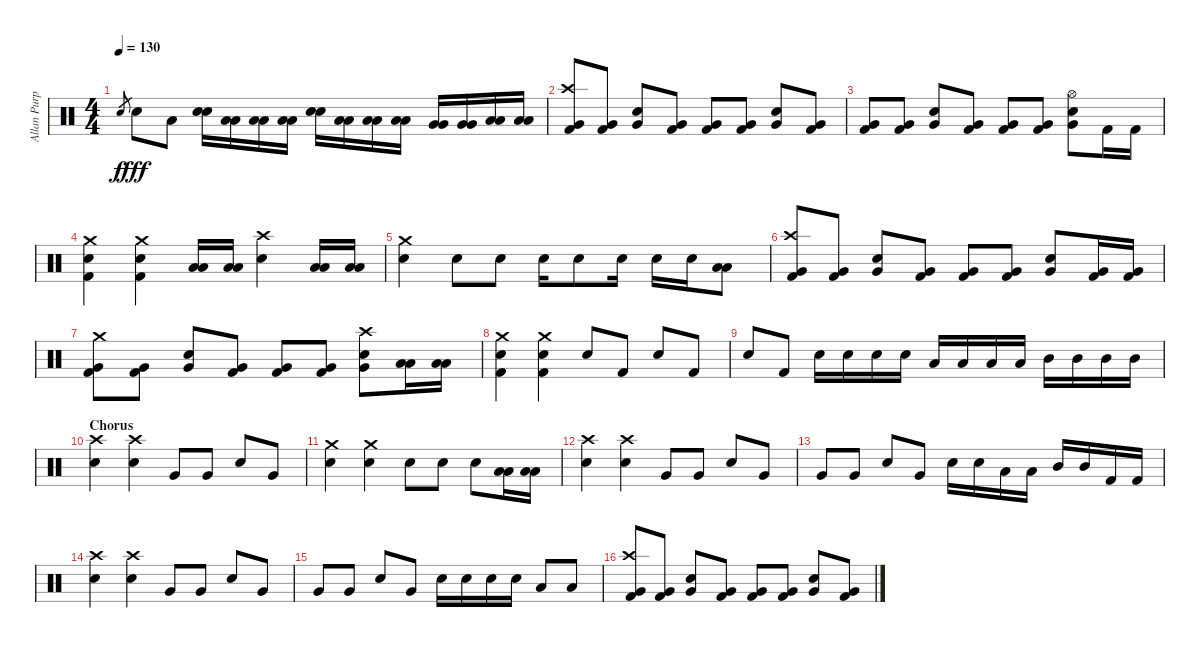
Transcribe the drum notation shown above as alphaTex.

\track ("Allan Purple" "Allan Purp") {instrument percussion}
\staff {score}
\articulation defaults
\ts (4 4)
\tempo 130
\clef neutral
\ks c "Snare (hit) 2".8{gr dy f} "Snare (hit) 2".8{dy fff} "Low Tom (hit)".8
("Electric Snare (hit)" "Electric Snare (hit)").16 ("Low Tom (hit)" "Low Tom (hit)").16 ("Low Tom (hit)" "Low Tom (hit)").16 ("Low Tom (hit)" "Low Tom (hit)").16 ("Electric Snare (hit)" "Electric Snare (hit)").16 ("Low Tom (hit)" "Low Tom (hit)").16 ("Low Tom (hit)" "Low Tom (hit)").16 ("Low Tom (hit)" "Low Tom (hit)").16 ("Very Low Tom (hit)" "Very Low Tom (hit)").16 ("Very Low Tom (hit)" "Very Low Tom (hit)").16 ("Low Floor Tom (hit)" "Low Floor Tom (hit)").16 ("Low Floor Tom (hit)" "Low Floor Tom (hit)").16 |
("Crash high (hit)" "Kick (hit) 2" "Very Low Tom (hit)").8 ("Kick (hit) 2" "Very Low Tom (hit)").8 ("Electric Snare (hit)" "Very Low Tom (hit)").8 ("Kick (hit) 2" "Very Low Tom (hit)").8 ("Kick (hit) 2" "Very Low Tom (hit)").8 ("Kick (hit) 2" "Very Low Tom (hit)").8 ("Electric Snare (hit)" "Very Low Tom (hit)").8 ("Kick (hit) 2" "Very Low Tom (hit)").8 |
("Kick (hit) 2" "Very Low Tom (hit)").8 ("Kick (hit) 2" "Very Low Tom (hit)").8 ("Electric Snare (hit)" "Very Low Tom (hit)").8 ("Kick (hit) 2" "Very Low Tom (hit)").8 ("Kick (hit) 2" "Very Low Tom (hit)").8 ("Kick (hit) 2" "Very Low Tom (hit)").8 ("Hi-Hat (open)" "Electric Snare (hit)" "Very Low Tom (hit)").8 "Kick (hit) 2".16 "Kick (hit) 2".16 |
("Crash medium (hit)" "Kick (hit) 2" "Electric Snare (hit)").4 ("Crash medium (hit)" "Kick (hit) 2" "Electric Snare (hit)").4 ("Low Tom (hit)" "Low Tom (hit)").16 ("Low Tom (hit)" "Low Tom (hit)").16 ("Crash high (hit)" "Snare (hit) 2").4 ("Low Tom (hit)" "Low Tom (hit)").16 ("Low Tom (hit)" "Low Tom (hit)").16 |
("Crash medium (hit)" "Electric Snare (hit)").4 "Electric Snare (hit)".8 "Electric Snare (hit)".8 "Electric Snare (hit)".16 "Electric Snare (hit)".8 "Snare (hit) 2".16 "Electric Snare (hit)".16 "Electric Snare (hit)".16 ("Low Tom (hit)" "Low Tom (hit)").8 |
("Crash high (hit)" "Kick (hit) 2" "Very Low Tom (hit)").8 ("Kick (hit) 2" "Very Low Tom (hit)").8 ("Electric Snare (hit)" "Very Low Tom (hit)").8 ("Kick (hit) 2" "Very Low Tom (hit)").8 ("Kick (hit) 2" "Very Low Tom (hit)").8 ("Kick (hit) 2" "Very Low Tom (hit)").8 ("Electric Snare (hit)" "Very Low Tom (hit)").8 ("Kick (hit) 2" "Very Low Tom (hit)").16 ("Kick (hit) 2" "Very Low Tom (hit)").16 |
("Crash medium (hit)" "Kick (hit) 2" "Very Low Tom (hit)").8 ("Kick (hit) 2" "Very Low Tom (hit)").8 ("Electric Snare (hit)" "Very Low Tom (hit)").8 ("Kick (hit) 2" "Very Low Tom (hit)").8 ("Kick (hit) 2" "Very Low Tom (hit)").8 ("Kick (hit) 2" "Very Low Tom (hit)").8 ("Crash high (hit)" "Electric Snare (hit)" "Very Low Tom (hit)").8 ("Low Tom (hit)" "Low Tom (hit)").16 ("Low Tom (hit)" "Low Tom (hit)").16 |
("Crash medium (hit)" "Kick (hit) 2" "Electric Snare (hit)").4 ("Crash medium (hit)" "Kick (hit) 2" "Electric Snare (hit)").4 "Electric Snare (hit)".8 "Kick (hit) 2".8 "Electric Snare (hit)".8 "Kick (hit) 2".8 |
"Electric Snare (hit)".8 "Kick (hit) 2".8 "Electric Snare (hit)".16 "Electric Snare (hit)".16 "Electric Snare (hit)".16 "Electric Snare (hit)".16 "Low Tom (hit)".16 "Low Tom (hit)".16 "Low Tom (hit)".16 "Low Tom (hit)".16 "Mid Tom (hit)".16 "Mid Tom (hit)".16 "Mid Tom (hit)".16 "Mid Tom (hit)".16 |
\section ("" "Chorus")
("Crash high (hit)" "Electric Snare (hit)").4 ("Crash high (hit)" "Electric Snare (hit)").4 "Very Low Tom (hit)".8 "Very Low Tom (hit)".8 "Electric Snare (hit)".8 "Very Low Tom (hit)".8 |
("Crash medium (hit)" "Electric Snare (hit)").4 ("Crash medium (hit)" "Electric Snare (hit)").4 "Snare (hit) 2".8 "Snare (hit) 2".8 "Electric Snare (hit)".8 ("Low Tom (hit)" "Low Tom (hit)").16 ("Low Tom (hit)" "Low Tom (hit)").16 |
("Crash high (hit)" "Electric Snare (hit)").4 ("Crash high (hit)" "Electric Snare (hit)").4 "Very Low Tom (hit)".8 "Very Low Tom (hit)".8 "Electric Snare (hit)".8 "Very Low Tom (hit)".8 |
"Very Low Tom (hit)".8 "Very Low Tom (hit)".8 "Electric Snare (hit)".8 "Very Low Tom (hit)".8 "Electric Snare (hit)".16 "Electric Snare (hit)".16 "Low Tom (hit)".16 "Low Tom (hit)".16 "Mid Tom (hit)".16 "Mid Tom (hit)".16 "Kick (hit) 2".16 "Kick (hit) 2".16 |
("Crash high (hit)" "Electric Snare (hit)").4 ("Crash high (hit)" "Electric Snare (hit)").4 "Very Low Tom (hit)".8 "Very Low Tom (hit)".8 "Electric Snare (hit)".8 "Very Low Tom (hit)".8 |
"Very Low Tom (hit)".8 "Very Low Tom (hit)".8 "Electric Snare (hit)".8 "Very Low Tom (hit)".8 "Electric Snare (hit)".16 "Electric Snare (hit)".16 "Snare (hit) 2".16 "Snare (hit) 2".16 "Low Tom (hit)".8 "Low Tom (hit)".8 |
("Crash high (hit)" "Kick (hit) 2" "Very Low Tom (hit)").8 ("Kick (hit) 2" "Very Low Tom (hit)").8 ("Electric Snare (hit)" "Very Low Tom (hit)").8 ("Kick (hit) 2" "Very Low Tom (hit)").8 ("Kick (hit) 2" "Very Low Tom (hit)").8 ("Kick (hit) 2" "Very Low Tom (hit)").8 ("Electric Snare (hit)" "Very Low Tom (hit)").8 ("Kick (hit) 2" "Very Low Tom (hit)").8
